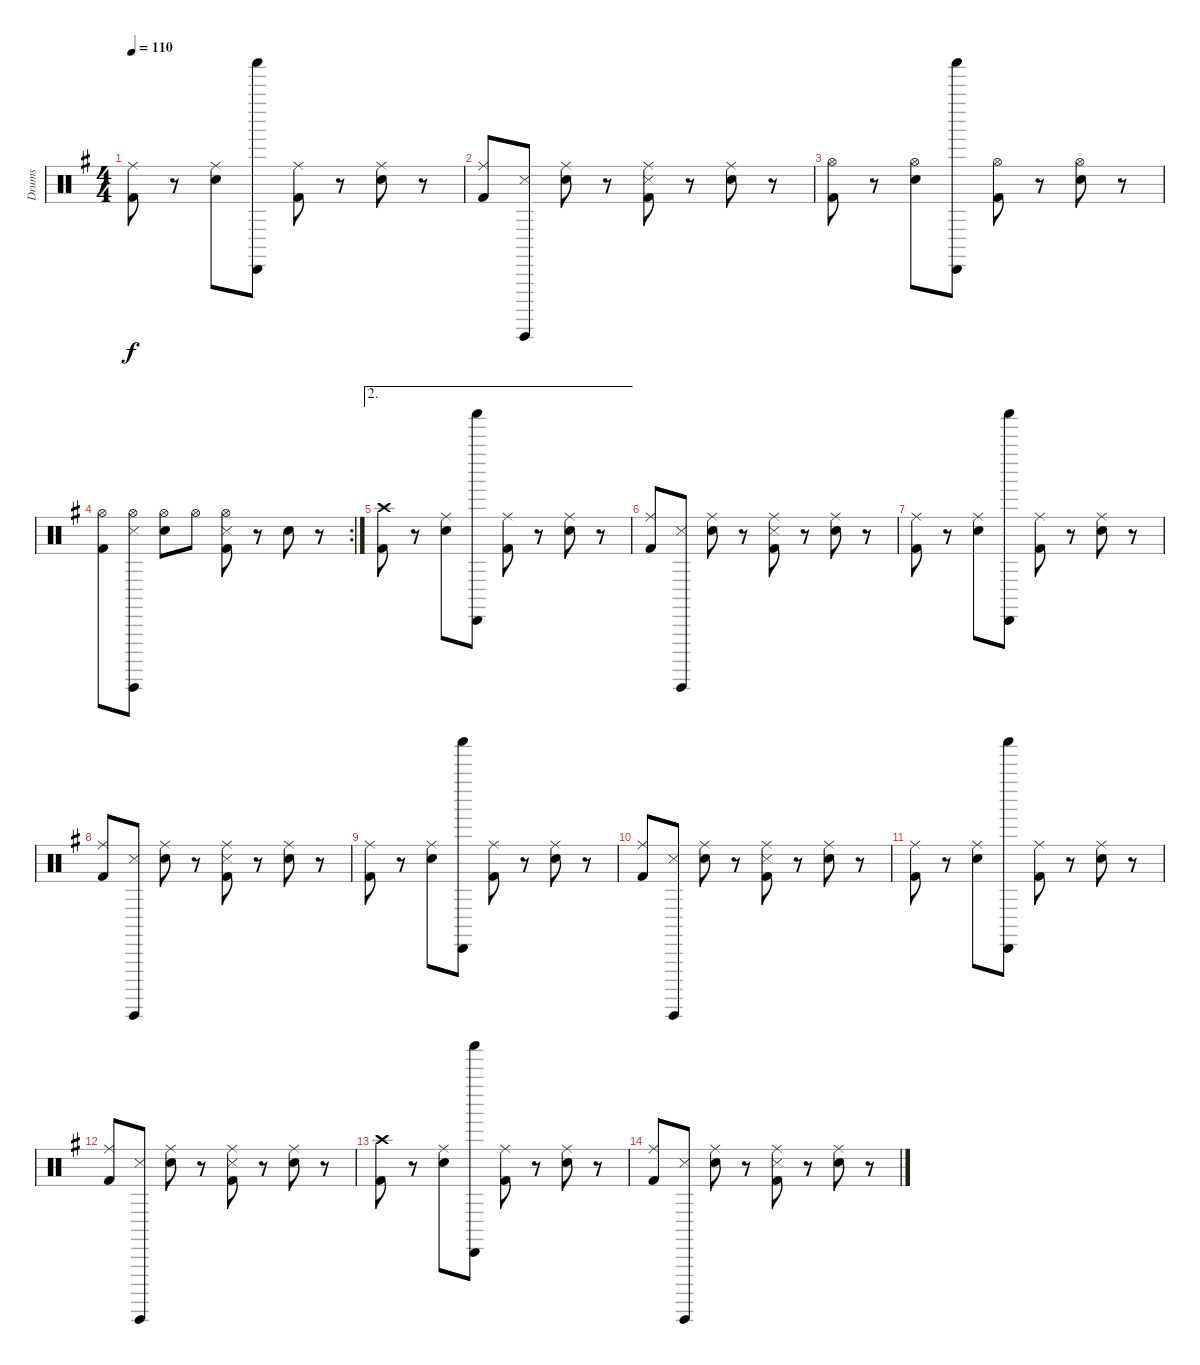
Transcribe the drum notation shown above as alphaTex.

\track ("Drums" "Drums") {instrument percussion}
\staff {score}
\articulation defaults
\ts (4 4)
\tempo 110
\clef neutral
\ks eminor
("Ride (middle)" "Kick (hit) 2").8{dy f} r.8 ("Ride (middle)" "Electric Snare (hit)").8 ("Shaker (hit)" "Cabasa (hit)").8 ("Ride (middle)" "Kick (hit) 2").8 r.8 ("Ride (middle)" "Electric Snare (hit)").8 r.8 |
("Ride (middle)" "Kick (hit) 2").8 ("Snare (side stick) 3" "Guiro (hit)").8 ("Ride (middle)" "Electric Snare (hit)").8 r.8 ("Ride (middle)" "Snare (side stick) 3" "Kick (hit) 2").8 r.8 ("Ride (middle)" "Electric Snare (hit)").8 r.8 |
("Hi-Hat (open)" "Kick (hit) 2").8 r.8 ("Hi-Hat (open)" "Electric Snare (hit)").8 ("Shaker (hit)" "Cabasa (hit)").8 ("Hi-Hat (open)" "Kick (hit) 2").8 r.8 ("Hi-Hat (open)" "Electric Snare (hit)").8 r.8 |
\rc 2
("Hi-Hat (open)" "Kick (hit) 2").8 ("Hi-Hat (open)" "Snare (side stick) 3" "Guiro (hit)").8 ("Hi-Hat (open)" "Electric Snare (hit)").8 "Hi-Hat (open)".8 ("Hi-Hat (open)" "Snare (side stick) 3" "Kick (hit) 2").8 r.8 "Electric Snare (hit)".8 r.8 |
\ae 2
("Crash high (hit)" "Kick (hit) 2").8 r.8 ("Ride (middle)" "Electric Snare (hit)").8 ("Shaker (hit)" "Cabasa (hit)").8 ("Ride (middle)" "Kick (hit) 2").8 r.8 ("Ride (middle)" "Electric Snare (hit)").8 r.8 |
("Ride (middle)" "Kick (hit) 2").8 ("Snare (side stick) 3" "Guiro (hit)").8 ("Ride (middle)" "Electric Snare (hit)").8 r.8 ("Ride (middle)" "Snare (side stick) 3" "Kick (hit) 2").8 r.8 ("Ride (middle)" "Electric Snare (hit)").8 r.8 |
("Ride (middle)" "Kick (hit) 2").8 r.8 ("Ride (middle)" "Electric Snare (hit)").8 ("Shaker (hit)" "Cabasa (hit)").8 ("Ride (middle)" "Kick (hit) 2").8 r.8 ("Ride (middle)" "Electric Snare (hit)").8 r.8 |
("Ride (middle)" "Kick (hit) 2").8 ("Snare (side stick) 3" "Guiro (hit)").8 ("Ride (middle)" "Electric Snare (hit)").8 r.8 ("Ride (middle)" "Snare (side stick) 3" "Kick (hit) 2").8 r.8 ("Ride (middle)" "Electric Snare (hit)").8 r.8 |
("Ride (middle)" "Kick (hit) 2").8 r.8 ("Ride (middle)" "Electric Snare (hit)").8 ("Shaker (hit)" "Cabasa (hit)").8 ("Ride (middle)" "Kick (hit) 2").8 r.8 ("Ride (middle)" "Electric Snare (hit)").8 r.8 |
("Ride (middle)" "Kick (hit) 2").8 ("Snare (side stick) 3" "Guiro (hit)").8 ("Ride (middle)" "Electric Snare (hit)").8 r.8 ("Ride (middle)" "Snare (side stick) 3" "Kick (hit) 2").8 r.8 ("Ride (middle)" "Electric Snare (hit)").8 r.8 |
("Ride (middle)" "Kick (hit) 2").8 r.8 ("Ride (middle)" "Electric Snare (hit)").8 ("Shaker (hit)" "Cabasa (hit)").8 ("Ride (middle)" "Kick (hit) 2").8 r.8 ("Ride (middle)" "Electric Snare (hit)").8 r.8 |
("Ride (middle)" "Kick (hit) 2").8 ("Snare (side stick) 3" "Guiro (hit)").8 ("Ride (middle)" "Electric Snare (hit)").8 r.8 ("Ride (middle)" "Snare (side stick) 3" "Kick (hit) 2").8 r.8 ("Ride (middle)" "Electric Snare (hit)").8 r.8 |
("Crash high (hit)" "Kick (hit) 2").8 r.8 ("Ride (middle)" "Electric Snare (hit)").8 ("Shaker (hit)" "Cabasa (hit)").8 ("Ride (middle)" "Kick (hit) 2").8 r.8 ("Ride (middle)" "Electric Snare (hit)").8 r.8 |
("Ride (middle)" "Kick (hit) 2").8 ("Snare (side stick) 3" "Guiro (hit)").8 ("Ride (middle)" "Electric Snare (hit)").8 r.8 ("Ride (middle)" "Snare (side stick) 3" "Kick (hit) 2").8 r.8 ("Ride (middle)" "Electric Snare (hit)").8 r.8
